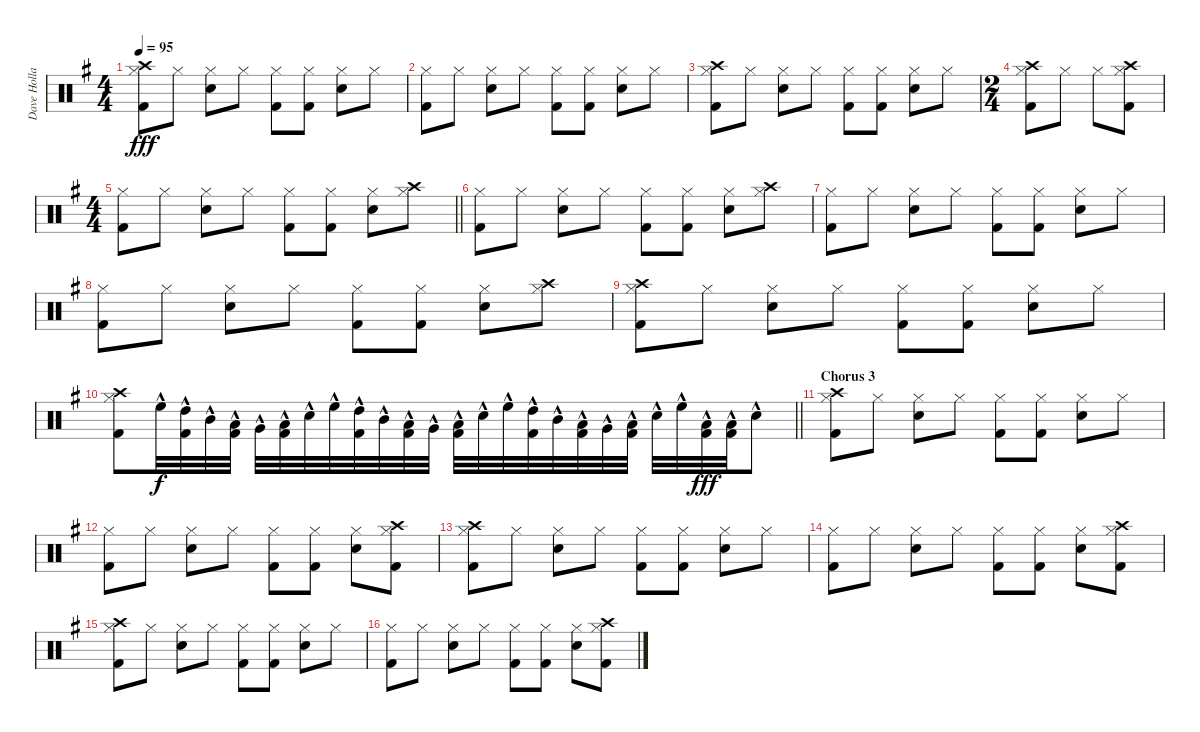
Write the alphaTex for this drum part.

\track ("Dave Holland" "Dave Holla") {instrument percussion}
\staff {score}
\articulation defaults
\ts (4 4)
\tempo 95
\clef neutral
\ks g
("Crash high (hit)" "Hi-Hat (closed)" "Kick (hit) 2").8{dy fff} "Hi-Hat (closed)".8 ("Hi-Hat (closed)" "Snare (hit) 2").8 "Hi-Hat (closed)".8 ("Hi-Hat (closed)" "Kick (hit) 2").8 ("Hi-Hat (closed)" "Kick (hit) 2").8 ("Hi-Hat (closed)" "Snare (hit) 2").8 "Hi-Hat (closed)".8 |
("Hi-Hat (closed)" "Kick (hit) 2").8 "Hi-Hat (closed)".8 ("Hi-Hat (closed)" "Snare (hit) 2").8 "Hi-Hat (closed)".8 ("Hi-Hat (closed)" "Kick (hit) 2").8 ("Hi-Hat (closed)" "Kick (hit) 2").8 ("Hi-Hat (closed)" "Snare (hit) 2").8 "Hi-Hat (closed)".8 |
("Crash high (hit)" "Hi-Hat (closed)" "Kick (hit) 2").8 "Hi-Hat (closed)".8 ("Hi-Hat (closed)" "Snare (hit) 2").8 "Hi-Hat (closed)".8 ("Hi-Hat (closed)" "Kick (hit) 2").8 ("Hi-Hat (closed)" "Kick (hit) 2").8 ("Hi-Hat (closed)" "Snare (hit) 2").8 "Hi-Hat (closed)".8 |
\ts (2 4)
("Crash high (hit)" "Hi-Hat (closed)" "Kick (hit) 2").8 "Hi-Hat (closed)".8 "Hi-Hat (closed)".8 ("Crash high (hit)" "Hi-Hat (closed)" "Kick (hit) 2").8 |
\ts (4 4)
\barLineRight lightlight
("Hi-Hat (closed)" "Kick (hit) 2").8 "Hi-Hat (closed)".8 ("Hi-Hat (closed)" "Snare (hit) 2").8 "Hi-Hat (closed)".8 ("Hi-Hat (closed)" "Kick (hit) 2").8 ("Hi-Hat (closed)" "Kick (hit) 2").8 ("Hi-Hat (closed)" "Snare (hit) 2").8 ("Crash high (hit)" "Hi-Hat (closed)").8 |
("Hi-Hat (closed)" "Kick (hit) 2").8 "Hi-Hat (closed)".8 ("Hi-Hat (closed)" "Snare (hit) 2").8 "Hi-Hat (closed)".8 ("Hi-Hat (closed)" "Kick (hit) 2").8 ("Hi-Hat (closed)" "Kick (hit) 2").8 ("Hi-Hat (closed)" "Snare (hit) 2").8 ("Crash high (hit)" "Hi-Hat (closed)").8 |
("Hi-Hat (closed)" "Kick (hit) 2").8 "Hi-Hat (closed)".8 ("Hi-Hat (closed)" "Snare (hit) 2").8 "Hi-Hat (closed)".8 ("Hi-Hat (closed)" "Kick (hit) 2").8 ("Hi-Hat (closed)" "Kick (hit) 2").8 ("Hi-Hat (closed)" "Snare (hit) 2").8 "Hi-Hat (closed)".8 |
("Hi-Hat (closed)" "Kick (hit) 2").8 "Hi-Hat (closed)".8 ("Hi-Hat (closed)" "Snare (hit) 2").8 "Hi-Hat (closed)".8 ("Hi-Hat (closed)" "Kick (hit) 2").8 ("Hi-Hat (closed)" "Kick (hit) 2").8 ("Hi-Hat (closed)" "Snare (hit) 2").8 ("Crash high (hit)" "Hi-Hat (closed)").8 |
("Crash high (hit)" "Hi-Hat (closed)" "Kick (hit) 2").8 "Hi-Hat (closed)".8 ("Hi-Hat (closed)" "Snare (hit) 2").8 "Hi-Hat (closed)".8 ("Hi-Hat (closed)" "Kick (hit) 2").8 ("Hi-Hat (closed)" "Kick (hit) 2").8 ("Hi-Hat (closed)" "Snare (hit) 2").8 "Hi-Hat (closed)".8 |
\barLineRight lightlight
("Crash high (hit)" "Hi-Hat (closed)" "Kick (hit) 2").8 "High Floor Tom (hit)"{hac}.32{dy f} ("High Tom (hit)"{hac} "Kick (hit) 2").32 "Mid Tom (hit)"{hac}.32 ("Low Tom (hit)"{hac} "Kick (hit) 2"{hac}).32 "Very Low Tom (hit)"{hac}.32 ("Low Floor Tom (hit)"{hac} "Kick (hit) 2"{hac}).32 "Snare (hit) 2"{hac}.32 "High Floor Tom (hit)"{hac}.32 ("High Tom (hit)"{hac} "Kick (hit) 2").32 "Mid Tom (hit)"{hac}.32 ("Low Tom (hit)"{hac} "Kick (hit) 2"{hac}).32 "Very Low Tom (hit)"{hac}.32 ("Low Floor Tom (hit)"{hac} "Kick (hit) 2"{hac}).32 "Snare (hit) 2"{hac}.32 "High Floor Tom (hit)"{hac}.32 ("High Tom (hit)"{hac} "Kick (hit) 2").32 "Mid Tom (hit)"{hac}.32 ("Low Tom (hit)"{hac} "Kick (hit) 2"{hac}).32 "Very Low Tom (hit)"{hac}.32 ("Low Floor Tom (hit)"{hac} "Kick (hit) 2"{hac}).32 "Snare (hit) 2"{hac}.32 "High Floor Tom (hit)"{hac}.32 ("Low Tom (hit)"{hac} "Kick (hit) 2"{hac}).32{dy fff} ("Low Floor Tom (hit)"{hac} "Kick (hit) 2"{hac}).32 "Snare (hit) 2"{hac}.8 |
\section ("" "Chorus 3")
("Crash high (hit)" "Hi-Hat (closed)" "Kick (hit) 2").8 "Hi-Hat (closed)".8 ("Hi-Hat (closed)" "Snare (hit) 2").8 "Hi-Hat (closed)".8 ("Hi-Hat (closed)" "Kick (hit) 2").8 ("Hi-Hat (closed)" "Kick (hit) 2").8 ("Hi-Hat (closed)" "Snare (hit) 2").8 "Hi-Hat (closed)".8 |
("Hi-Hat (closed)" "Kick (hit) 2").8 "Hi-Hat (closed)".8 ("Hi-Hat (closed)" "Snare (hit) 2").8 "Hi-Hat (closed)".8 ("Hi-Hat (closed)" "Kick (hit) 2").8 ("Hi-Hat (closed)" "Kick (hit) 2").8 ("Hi-Hat (closed)" "Snare (hit) 2").8 ("Crash high (hit)" "Hi-Hat (closed)" "Kick (hit) 2").8 |
("Crash high (hit)" "Hi-Hat (closed)" "Kick (hit) 2").8 "Hi-Hat (closed)".8 ("Hi-Hat (closed)" "Snare (hit) 2").8 "Hi-Hat (closed)".8 ("Hi-Hat (closed)" "Kick (hit) 2").8 ("Hi-Hat (closed)" "Kick (hit) 2").8 ("Hi-Hat (closed)" "Snare (hit) 2").8 "Hi-Hat (closed)".8 |
("Hi-Hat (closed)" "Kick (hit) 2").8 "Hi-Hat (closed)".8 ("Hi-Hat (closed)" "Snare (hit) 2").8 "Hi-Hat (closed)".8 ("Hi-Hat (closed)" "Kick (hit) 2").8 ("Hi-Hat (closed)" "Kick (hit) 2").8 ("Hi-Hat (closed)" "Snare (hit) 2").8 ("Crash high (hit)" "Hi-Hat (closed)" "Kick (hit) 2").8 |
("Crash high (hit)" "Hi-Hat (closed)" "Kick (hit) 2").8 "Hi-Hat (closed)".8 ("Hi-Hat (closed)" "Snare (hit) 2").8 "Hi-Hat (closed)".8 ("Hi-Hat (closed)" "Kick (hit) 2").8 ("Hi-Hat (closed)" "Kick (hit) 2").8 ("Hi-Hat (closed)" "Snare (hit) 2").8 "Hi-Hat (closed)".8 |
("Hi-Hat (closed)" "Kick (hit) 2").8 "Hi-Hat (closed)".8 ("Hi-Hat (closed)" "Snare (hit) 2").8 "Hi-Hat (closed)".8 ("Hi-Hat (closed)" "Kick (hit) 2").8 ("Hi-Hat (closed)" "Kick (hit) 2").8 ("Hi-Hat (closed)" "Snare (hit) 2").8 ("Crash high (hit)" "Hi-Hat (closed)" "Kick (hit) 2").8
